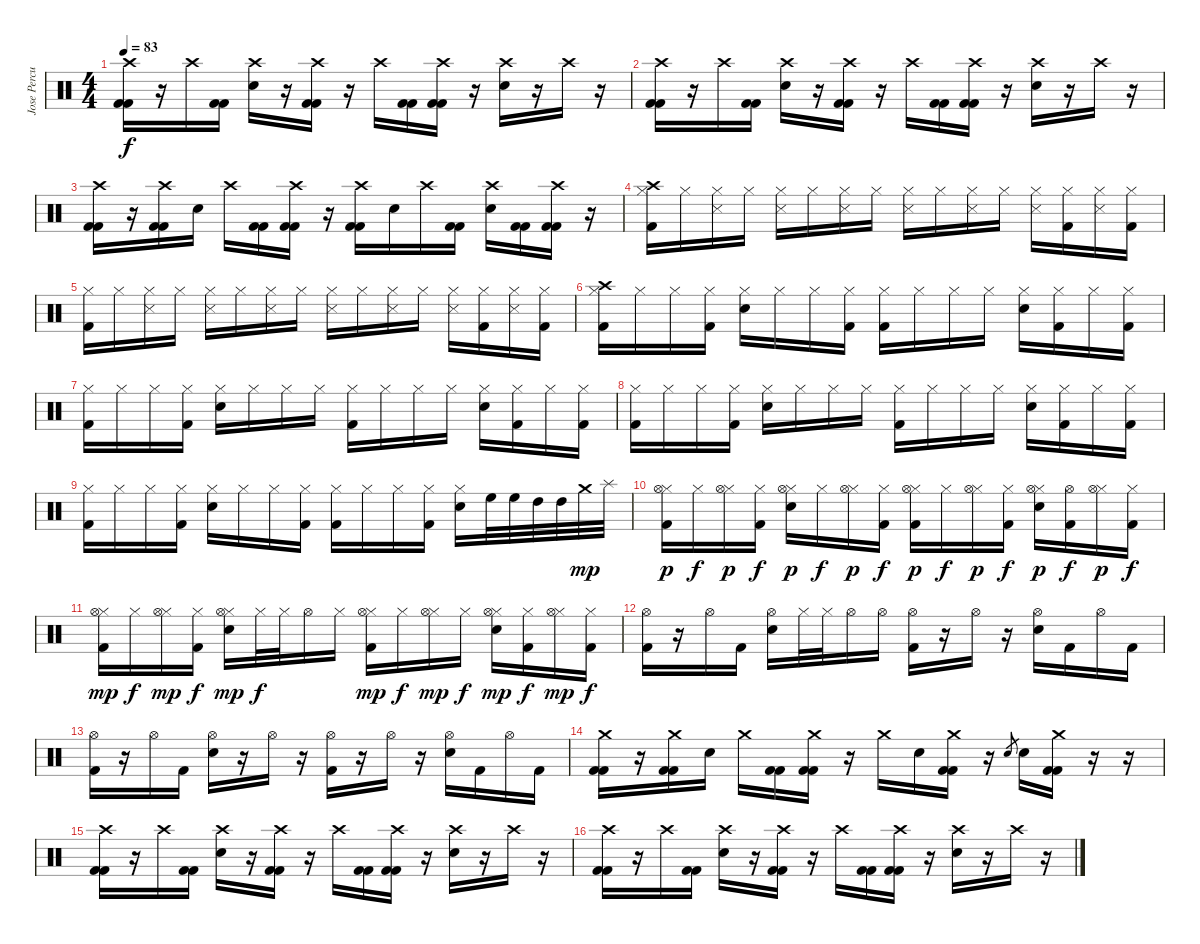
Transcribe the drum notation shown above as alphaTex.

\track ("Jose Percusilas" "Jose Percu") {instrument percussion}
\staff {score}
\articulation defaults
\ts (4 4)
\tempo 83
\clef neutral
\ks c
("Crash high (hit)" "Kick (hit) 2" "Kick (hit) 2").16{dy f} r.16 "Crash high (hit)".16 ("Kick (hit) 2" "Kick (hit) 2").16 ("Crash high (hit)" "Electric Snare (hit)").16 r.16 ("Crash high (hit)" "Kick (hit) 2" "Kick (hit) 2").16 r.16 "Crash high (hit)".16 ("Kick (hit) 2" "Kick (hit) 2").16 ("Crash high (hit)" "Kick (hit) 2" "Kick (hit) 2").16 r.16 ("Crash high (hit)" "Electric Snare (hit)").16 r.16 "Crash high (hit)".16 r.16 |
("Crash high (hit)" "Kick (hit) 2" "Kick (hit) 2").16 r.16 "Crash high (hit)".16 ("Kick (hit) 2" "Kick (hit) 2").16 ("Crash high (hit)" "Electric Snare (hit)").16 r.16 ("Crash high (hit)" "Kick (hit) 2" "Kick (hit) 2").16 r.16 "Crash high (hit)".16 ("Kick (hit) 2" "Kick (hit) 2").16 ("Crash high (hit)" "Kick (hit) 2" "Kick (hit) 2").16 r.16 ("Crash high (hit)" "Electric Snare (hit)").16 r.16 "Crash high (hit)".16 r.16 |
("Crash high (hit)" "Kick (hit) 2" "Kick (hit) 2").16 r.16 ("Crash high (hit)" "Kick (hit) 2" "Kick (hit) 2").16 "Electric Snare (hit)".16 "Crash high (hit)".16 ("Kick (hit) 2" "Kick (hit) 2").16 ("Crash high (hit)" "Kick (hit) 2" "Kick (hit) 2").16 r.16 ("Crash high (hit)" "Kick (hit) 2" "Kick (hit) 2").16 "Electric Snare (hit)".16 "Crash high (hit)".16 ("Kick (hit) 2" "Kick (hit) 2").16 ("Crash high (hit)" "Electric Snare (hit)").16 ("Kick (hit) 2" "Kick (hit) 2").16 ("Crash high (hit)" "Kick (hit) 2" "Kick (hit) 2").16 r.16 |
("Hi-Hat (closed)" "Crash high (hit)" "Kick (hit) 2").16 "Hi-Hat (closed)".16 ("Hi-Hat (closed)" "Snare (side stick) 3").16 "Hi-Hat (closed)".16 ("Hi-Hat (closed)" "Snare (side stick) 3").16 "Hi-Hat (closed)".16 ("Hi-Hat (closed)" "Snare (side stick) 3").16 "Hi-Hat (closed)".16 ("Hi-Hat (closed)" "Snare (side stick) 3").16 "Hi-Hat (closed)".16 ("Hi-Hat (closed)" "Snare (side stick) 3").16 "Hi-Hat (closed)".16 ("Hi-Hat (closed)" "Snare (side stick) 3").16 ("Hi-Hat (closed)" "Kick (hit) 2").16 ("Hi-Hat (closed)" "Snare (side stick) 3").16 ("Hi-Hat (closed)" "Kick (hit) 2").16 |
("Hi-Hat (closed)" "Kick (hit) 2").16 "Hi-Hat (closed)".16 ("Hi-Hat (closed)" "Snare (side stick) 3").16 "Hi-Hat (closed)".16 ("Hi-Hat (closed)" "Snare (side stick) 3").16 "Hi-Hat (closed)".16 ("Hi-Hat (closed)" "Snare (side stick) 3").16 "Hi-Hat (closed)".16 ("Hi-Hat (closed)" "Snare (side stick) 3").16 "Hi-Hat (closed)".16 ("Hi-Hat (closed)" "Snare (side stick) 3").16 "Hi-Hat (closed)".16 ("Hi-Hat (closed)" "Snare (side stick) 3").16 ("Hi-Hat (closed)" "Kick (hit) 2").16 ("Hi-Hat (closed)" "Snare (side stick) 3").16 ("Hi-Hat (closed)" "Kick (hit) 2").16 |
("Hi-Hat (closed)" "Crash high (hit)" "Kick (hit) 2").16 "Hi-Hat (closed)".16 "Hi-Hat (closed)".16 ("Hi-Hat (closed)" "Kick (hit) 2").16 ("Hi-Hat (closed)" "Electric Snare (hit)").16 "Hi-Hat (closed)".16 "Hi-Hat (closed)".16 ("Hi-Hat (closed)" "Kick (hit) 2").16 ("Hi-Hat (closed)" "Kick (hit) 2").16 "Hi-Hat (closed)".16 "Hi-Hat (closed)".16 "Hi-Hat (closed)".16 ("Hi-Hat (closed)" "Electric Snare (hit)").16 ("Hi-Hat (closed)" "Kick (hit) 2").16 "Hi-Hat (closed)".16 ("Hi-Hat (closed)" "Kick (hit) 2").16 |
("Hi-Hat (closed)" "Kick (hit) 2").16 "Hi-Hat (closed)".16 "Hi-Hat (closed)".16 ("Hi-Hat (closed)" "Kick (hit) 2").16 ("Hi-Hat (closed)" "Electric Snare (hit)").16 "Hi-Hat (closed)".16 "Hi-Hat (closed)".16 "Hi-Hat (closed)".16 ("Hi-Hat (closed)" "Kick (hit) 2").16 "Hi-Hat (closed)".16 "Hi-Hat (closed)".16 "Hi-Hat (closed)".16 ("Hi-Hat (closed)" "Electric Snare (hit)").16 ("Hi-Hat (closed)" "Kick (hit) 2").16 "Hi-Hat (closed)".16 ("Hi-Hat (closed)" "Kick (hit) 2").16 |
("Hi-Hat (closed)" "Kick (hit) 2").16 "Hi-Hat (closed)".16 "Hi-Hat (closed)".16 ("Hi-Hat (closed)" "Kick (hit) 2").16 ("Hi-Hat (closed)" "Electric Snare (hit)").16 "Hi-Hat (closed)".16 "Hi-Hat (closed)".16 "Hi-Hat (closed)".16 ("Hi-Hat (closed)" "Kick (hit) 2").16 "Hi-Hat (closed)".16 "Hi-Hat (closed)".16 "Hi-Hat (closed)".16 ("Hi-Hat (closed)" "Electric Snare (hit)").16 ("Hi-Hat (closed)" "Kick (hit) 2").16 "Hi-Hat (closed)".16 ("Hi-Hat (closed)" "Kick (hit) 2").16 |
("Hi-Hat (closed)" "Kick (hit) 2").16 "Hi-Hat (closed)".16 "Hi-Hat (closed)".16 ("Hi-Hat (closed)" "Kick (hit) 2").16 ("Hi-Hat (closed)" "Electric Snare (hit)").16 "Hi-Hat (closed)".16 "Hi-Hat (closed)".16 ("Hi-Hat (closed)" "Kick (hit) 2").16 ("Hi-Hat (closed)" "Kick (hit) 2").16 "Hi-Hat (closed)".16 "Hi-Hat (closed)".16 ("Hi-Hat (closed)" "Kick (hit) 2").16 ("Hi-Hat (closed)" "Electric Snare (hit)").16 "High Floor Tom (hit)".32 "High Floor Tom (hit)".32 "High Tom (hit)".32 "High Tom (hit)".32 "Crash medium (hit)".32{dy mp} "Splash (hit)".32 |
("Hi-Hat (closed)" "Hi-Hat (open)" "Kick (hit) 2").16{dy p} "Hi-Hat (closed)".16{dy f} ("Hi-Hat (closed)" "Hi-Hat (open)").16{dy p} ("Hi-Hat (closed)" "Kick (hit) 2").16{dy f} ("Hi-Hat (closed)" "Hi-Hat (open)" "Electric Snare (hit)").16{dy p} "Hi-Hat (closed)".16{dy f} ("Hi-Hat (closed)" "Hi-Hat (open)").16{dy p} ("Hi-Hat (closed)" "Kick (hit) 2").16{dy f} ("Hi-Hat (closed)" "Hi-Hat (open)" "Kick (hit) 2").16{dy p} "Hi-Hat (closed)".16{dy f} ("Hi-Hat (closed)" "Hi-Hat (open)").16{dy p} ("Hi-Hat (closed)" "Kick (hit) 2").16{dy f} ("Hi-Hat (closed)" "Hi-Hat (open)" "Electric Snare (hit)").16{dy p} ("Hi-Hat (open)" "Kick (hit) 2").16{dy f} ("Hi-Hat (closed)" "Hi-Hat (open)").16{dy p} ("Hi-Hat (closed)" "Kick (hit) 2").16{dy f} |
("Hi-Hat (closed)" "Hi-Hat (open)" "Kick (hit) 2").16{dy mp} "Hi-Hat (closed)".16{dy f} ("Hi-Hat (closed)" "Hi-Hat (open)").16{dy mp} ("Hi-Hat (closed)" "Kick (hit) 2").16{dy f} ("Hi-Hat (closed)" "Hi-Hat (open)" "Electric Snare (hit)").16{dy mp} "Hi-Hat (closed)".32{dy f} "Hi-Hat (closed)".32 "Hi-Hat (open)".16 "Hi-Hat (closed)".16 ("Hi-Hat (closed)" "Hi-Hat (open)" "Kick (hit) 2").16{dy mp} "Hi-Hat (closed)".16{dy f} ("Hi-Hat (closed)" "Hi-Hat (open)").16{dy mp} "Hi-Hat (closed)".16{dy f} ("Hi-Hat (closed)" "Hi-Hat (open)" "Electric Snare (hit)").16{dy mp} ("Hi-Hat (closed)" "Kick (hit) 2").16{dy f} ("Hi-Hat (closed)" "Hi-Hat (open)").16{dy mp} ("Hi-Hat (closed)" "Kick (hit) 2").16{dy f} |
("Hi-Hat (open)" "Kick (hit) 2").16 r.16 "Hi-Hat (open)".16 "Kick (hit) 2".16 ("Hi-Hat (open)" "Electric Snare (hit)").16 "Hi-Hat (closed)".32 "Hi-Hat (closed)".32 "Hi-Hat (open)".16 "Hi-Hat (open)".16 ("Hi-Hat (open)" "Kick (hit) 2").16 r.16 "Hi-Hat (open)".16 r.16 ("Hi-Hat (open)" "Electric Snare (hit)").16 "Kick (hit) 2".16 "Hi-Hat (open)".16 "Kick (hit) 2".16 |
("Hi-Hat (open)" "Kick (hit) 2").16 r.16 "Hi-Hat (open)".16 "Kick (hit) 2".16 ("Hi-Hat (open)" "Electric Snare (hit)").16 r.16 "Hi-Hat (open)".16 r.16 ("Hi-Hat (open)" "Kick (hit) 2").16 r.16 "Hi-Hat (open)".16 r.16 ("Hi-Hat (open)" "Electric Snare (hit)").16 "Kick (hit) 2".16 "Hi-Hat (open)".16 "Kick (hit) 2".16 |
("Crash medium (hit)" "Kick (hit) 2" "Kick (hit) 2").16 r.16 ("Crash medium (hit)" "Kick (hit) 2" "Kick (hit) 2").16 "Electric Snare (hit)".16 "Crash medium (hit)".16 ("Kick (hit) 2" "Kick (hit) 2").16 ("Crash medium (hit)" "Kick (hit) 2" "Kick (hit) 2").16 r.16 "Crash medium (hit)".16 "Electric Snare (hit)".16 ("Crash medium (hit)" "Kick (hit) 2" "Kick (hit) 2").16 r.16 "Electric Snare (hit)".8{gr} "Electric Snare (hit)".16 ("Crash medium (hit)" "Kick (hit) 2" "Kick (hit) 2").16 r.16 r.16 |
("Crash high (hit)" "Kick (hit) 2" "Kick (hit) 2").16 r.16 "Crash high (hit)".16 ("Kick (hit) 2" "Kick (hit) 2").16 ("Crash high (hit)" "Electric Snare (hit)").16 r.16 ("Crash high (hit)" "Kick (hit) 2" "Kick (hit) 2").16 r.16 "Crash high (hit)".16 ("Kick (hit) 2" "Kick (hit) 2").16 ("Crash high (hit)" "Kick (hit) 2" "Kick (hit) 2").16 r.16 ("Crash high (hit)" "Electric Snare (hit)").16 r.16 "Crash high (hit)".16 r.16 |
("Crash high (hit)" "Kick (hit) 2" "Kick (hit) 2").16 r.16 "Crash high (hit)".16 ("Kick (hit) 2" "Kick (hit) 2").16 ("Crash high (hit)" "Electric Snare (hit)").16 r.16 ("Crash high (hit)" "Kick (hit) 2" "Kick (hit) 2").16 r.16 "Crash high (hit)".16 ("Kick (hit) 2" "Kick (hit) 2").16 ("Crash high (hit)" "Kick (hit) 2" "Kick (hit) 2").16 r.16 ("Crash high (hit)" "Electric Snare (hit)").16 r.16 "Crash high (hit)".16 r.16
